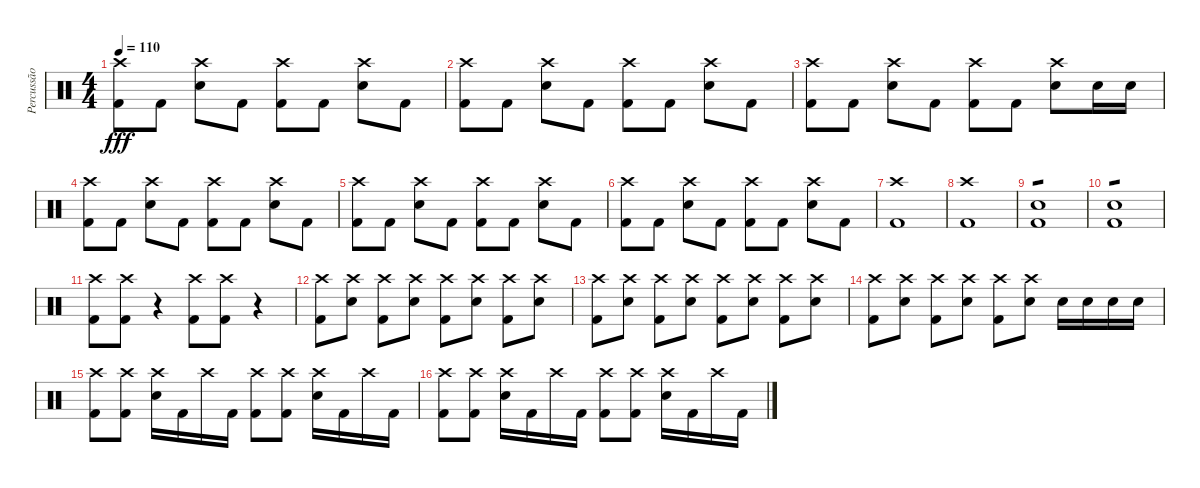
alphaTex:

\track ("Percussão" "Percussão") {instrument percussion}
\staff {score}
\articulation defaults
\ts (4 4)
\tempo 110
\clef neutral
\ks c
("Crash high (hit)" "Kick (hit) 2").8{dy fff} "Kick (hit) 2".8 ("Crash high (hit)" "Electric Snare (hit)").8 "Kick (hit) 2".8 ("Crash high (hit)" "Kick (hit) 2").8 "Kick (hit) 2".8 ("Crash high (hit)" "Electric Snare (hit)").8 "Kick (hit) 2".8 |
("Crash high (hit)" "Kick (hit) 2").8 "Kick (hit) 2".8 ("Crash high (hit)" "Electric Snare (hit)").8 "Kick (hit) 2".8 ("Crash high (hit)" "Kick (hit) 2").8 "Kick (hit) 2".8 ("Crash high (hit)" "Electric Snare (hit)").8 "Kick (hit) 2".8 |
("Crash high (hit)" "Kick (hit) 2").8 "Kick (hit) 2".8 ("Crash high (hit)" "Electric Snare (hit)").8 "Kick (hit) 2".8 ("Crash high (hit)" "Kick (hit) 2").8 "Kick (hit) 2".8 ("Crash high (hit)" "Electric Snare (hit)").8 "Electric Snare (hit)".16 "Electric Snare (hit)".16 |
("Crash high (hit)" "Kick (hit) 2").8 "Kick (hit) 2".8 ("Crash high (hit)" "Electric Snare (hit)").8 "Kick (hit) 2".8 ("Crash high (hit)" "Kick (hit) 2").8 "Kick (hit) 2".8 ("Crash high (hit)" "Electric Snare (hit)").8 "Kick (hit) 2".8 |
("Crash high (hit)" "Kick (hit) 2").8 "Kick (hit) 2".8 ("Crash high (hit)" "Electric Snare (hit)").8 "Kick (hit) 2".8 ("Crash high (hit)" "Kick (hit) 2").8 "Kick (hit) 2".8 ("Crash high (hit)" "Electric Snare (hit)").8 "Kick (hit) 2".8 |
("Crash high (hit)" "Kick (hit) 2").8 "Kick (hit) 2".8 ("Crash high (hit)" "Electric Snare (hit)").8 "Kick (hit) 2".8 ("Crash high (hit)" "Kick (hit) 2").8 "Kick (hit) 2".8 ("Crash high (hit)" "Electric Snare (hit)").8 "Kick (hit) 2".8 |
("Crash high (hit)" "Kick (hit) 2").1 |
("Crash high (hit)" "Kick (hit) 2").1 |
("Electric Snare (hit)" "Kick (hit) 2").1{tp 1} |
("Electric Snare (hit)" "Kick (hit) 2").1{tp 1} |
("Crash high (hit)" "Kick (hit) 2").8 ("Crash high (hit)" "Kick (hit) 2").8 r.4 ("Crash high (hit)" "Kick (hit) 2").8 ("Crash high (hit)" "Kick (hit) 2").8 r.4 |
("Crash high (hit)" "Kick (hit) 2").8 ("Crash high (hit)" "Electric Snare (hit)").8 ("Crash high (hit)" "Kick (hit) 2").8 ("Crash high (hit)" "Electric Snare (hit)").8 ("Crash high (hit)" "Kick (hit) 2").8 ("Crash high (hit)" "Electric Snare (hit)").8 ("Crash high (hit)" "Kick (hit) 2").8 ("Crash high (hit)" "Electric Snare (hit)").8 |
("Crash high (hit)" "Kick (hit) 2").8 ("Crash high (hit)" "Electric Snare (hit)").8 ("Crash high (hit)" "Kick (hit) 2").8 ("Crash high (hit)" "Electric Snare (hit)").8 ("Crash high (hit)" "Kick (hit) 2").8 ("Crash high (hit)" "Electric Snare (hit)").8 ("Crash high (hit)" "Kick (hit) 2").8 ("Crash high (hit)" "Electric Snare (hit)").8 |
("Crash high (hit)" "Kick (hit) 2").8 ("Crash high (hit)" "Electric Snare (hit)").8 ("Crash high (hit)" "Kick (hit) 2").8 ("Crash high (hit)" "Electric Snare (hit)").8 ("Crash high (hit)" "Kick (hit) 2").8 ("Crash high (hit)" "Electric Snare (hit)").8 "Electric Snare (hit)".16 "Electric Snare (hit)".16 "Electric Snare (hit)".16 "Electric Snare (hit)".16 |
("Crash high (hit)" "Kick (hit) 2").8 ("Crash high (hit)" "Kick (hit) 2").8 ("Crash high (hit)" "Electric Snare (hit)").16 "Kick (hit) 2".16 "Crash high (hit)".16 "Kick (hit) 2".16 ("Crash high (hit)" "Kick (hit) 2").8 ("Crash high (hit)" "Kick (hit) 2").8 ("Crash high (hit)" "Electric Snare (hit)").16 "Kick (hit) 2".16 "Crash high (hit)".16 "Kick (hit) 2".16 |
("Crash high (hit)" "Kick (hit) 2").8 ("Crash high (hit)" "Kick (hit) 2").8 ("Crash high (hit)" "Electric Snare (hit)").16 "Kick (hit) 2".16 "Crash high (hit)".16 "Kick (hit) 2".16 ("Crash high (hit)" "Kick (hit) 2").8 ("Crash high (hit)" "Kick (hit) 2").8 ("Crash high (hit)" "Electric Snare (hit)").16 "Kick (hit) 2".16 "Crash high (hit)".16 "Kick (hit) 2".16
